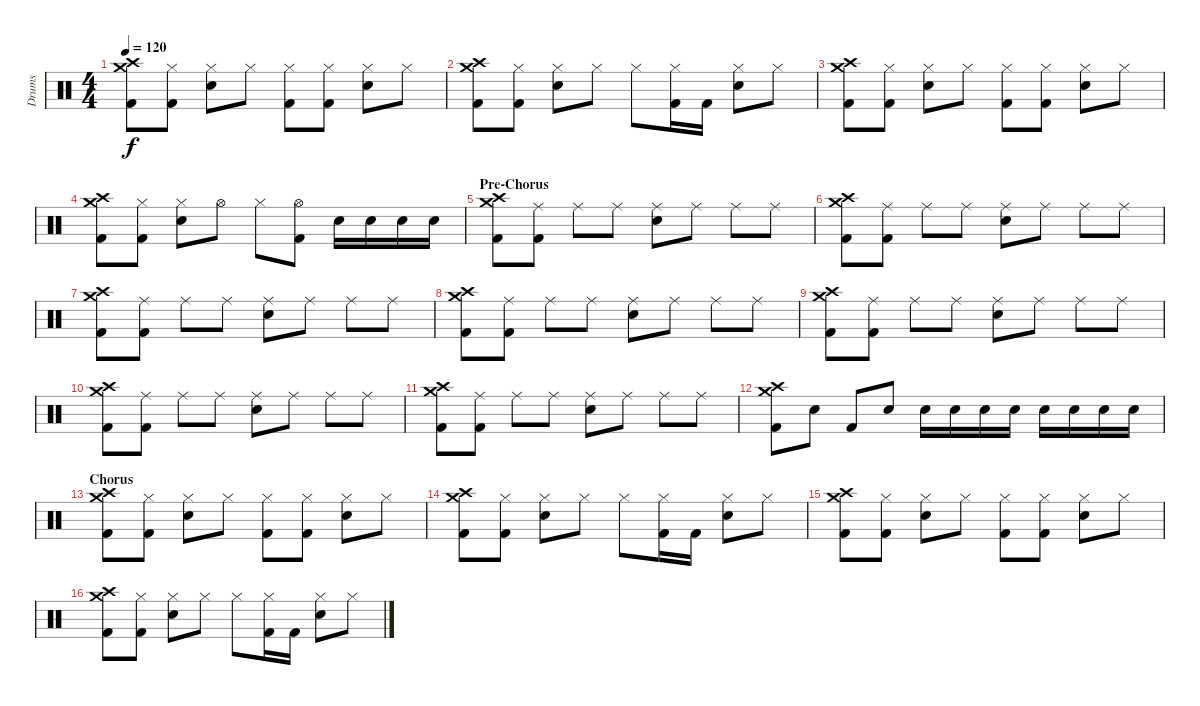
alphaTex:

\track ("Drums" "Drums") {instrument percussion}
\staff {score}
\articulation defaults
\ts (4 4)
\tempo 120
\clef neutral
\ks c
("Crash high (hit)" "Crash medium (hit)" "Kick (hit) 2").8{dy f} ("Hi-Hat (closed)" "Kick (hit) 2").8 ("Hi-Hat (closed)" "Snare (hit) 2").8 "Hi-Hat (closed)".8 ("Hi-Hat (closed)" "Kick (hit) 2").8 ("Hi-Hat (closed)" "Kick (hit) 2").8 ("Hi-Hat (closed)" "Snare (hit) 2").8 "Hi-Hat (closed)".8 |
("Crash high (hit)" "Crash medium (hit)" "Kick (hit) 2").8 ("Hi-Hat (closed)" "Kick (hit) 2").8 ("Hi-Hat (closed)" "Snare (hit) 2").8 "Hi-Hat (closed)".8 "Hi-Hat (closed)".8 ("Hi-Hat (closed)" "Kick (hit) 2").16 "Kick (hit) 2".16 ("Hi-Hat (closed)" "Snare (hit) 2").8 "Hi-Hat (closed)".8 |
("Crash high (hit)" "Crash medium (hit)" "Kick (hit) 2").8 ("Hi-Hat (closed)" "Kick (hit) 2").8 ("Hi-Hat (closed)" "Snare (hit) 2").8 "Hi-Hat (closed)".8 ("Hi-Hat (closed)" "Kick (hit) 2").8 ("Hi-Hat (closed)" "Kick (hit) 2").8 ("Hi-Hat (closed)" "Snare (hit) 2").8 "Hi-Hat (closed)".8 |
("Crash high (hit)" "Crash medium (hit)" "Kick (hit) 2").8 ("Hi-Hat (closed)" "Kick (hit) 2").8 ("Hi-Hat (closed)" "Snare (hit) 2").8 "Hi-Hat (open)".8 "Hi-Hat (closed)".8 ("Hi-Hat (open)" "Kick (hit) 2").8 "Snare (hit) 2".16 "Snare (hit) 2".16 "Snare (hit) 2".16 "Snare (hit) 2".16 |
\section ("" "Pre-Chorus")
("Crash high (hit)" "Crash medium (hit)" "Kick (hit) 2").8 ("Ride (middle)" "Kick (hit) 2").8 "Ride (middle)".8 "Ride (middle)".8 ("Ride (middle)" "Snare (hit) 2").8 "Ride (middle)".8 "Ride (middle)".8 "Ride (middle)".8 |
("Crash high (hit)" "Crash medium (hit)" "Kick (hit) 2").8 ("Ride (middle)" "Kick (hit) 2").8 "Ride (middle)".8 "Ride (middle)".8 ("Ride (middle)" "Snare (hit) 2").8 "Ride (middle)".8 "Ride (middle)".8 "Ride (middle)".8 |
("Crash high (hit)" "Crash medium (hit)" "Kick (hit) 2").8 ("Ride (middle)" "Kick (hit) 2").8 "Ride (middle)".8 "Ride (middle)".8 ("Ride (middle)" "Snare (hit) 2").8 "Ride (middle)".8 "Ride (middle)".8 "Ride (middle)".8 |
("Crash high (hit)" "Crash medium (hit)" "Kick (hit) 2").8 ("Ride (middle)" "Kick (hit) 2").8 "Ride (middle)".8 "Ride (middle)".8 ("Ride (middle)" "Snare (hit) 2").8 "Ride (middle)".8 "Ride (middle)".8 "Ride (middle)".8 |
("Crash high (hit)" "Crash medium (hit)" "Kick (hit) 2").8 ("Ride (middle)" "Kick (hit) 2").8 "Ride (middle)".8 "Ride (middle)".8 ("Ride (middle)" "Snare (hit) 2").8 "Ride (middle)".8 "Ride (middle)".8 "Ride (middle)".8 |
("Crash high (hit)" "Crash medium (hit)" "Kick (hit) 2").8 ("Ride (middle)" "Kick (hit) 2").8 "Ride (middle)".8 "Ride (middle)".8 ("Ride (middle)" "Snare (hit) 2").8 "Ride (middle)".8 "Ride (middle)".8 "Ride (middle)".8 |
("Crash high (hit)" "Crash medium (hit)" "Kick (hit) 2").8 ("Ride (middle)" "Kick (hit) 2").8 "Ride (middle)".8 "Ride (middle)".8 ("Ride (middle)" "Snare (hit) 2").8 "Ride (middle)".8 "Ride (middle)".8 "Ride (middle)".8 |
("Crash high (hit)" "Crash medium (hit)" "Kick (hit) 2").8 "Snare (hit) 2".8 "Kick (hit) 2".8 "Snare (hit) 2".8 "Snare (hit) 2".16 "Snare (hit) 2".16 "Snare (hit) 2".16 "Snare (hit) 2".16 "Snare (hit) 2".16 "Snare (hit) 2".16 "Snare (hit) 2".16 "Snare (hit) 2".16 |
\section ("" "Chorus")
("Crash high (hit)" "Crash medium (hit)" "Kick (hit) 2").8 ("Hi-Hat (closed)" "Kick (hit) 2").8 ("Hi-Hat (closed)" "Snare (hit) 2").8 "Hi-Hat (closed)".8 ("Hi-Hat (closed)" "Kick (hit) 2").8 ("Hi-Hat (closed)" "Kick (hit) 2").8 ("Hi-Hat (closed)" "Snare (hit) 2").8 "Hi-Hat (closed)".8 |
("Crash high (hit)" "Crash medium (hit)" "Kick (hit) 2").8 ("Hi-Hat (closed)" "Kick (hit) 2").8 ("Hi-Hat (closed)" "Snare (hit) 2").8 "Hi-Hat (closed)".8 "Hi-Hat (closed)".8 ("Hi-Hat (closed)" "Kick (hit) 2").16 "Kick (hit) 2".16 ("Hi-Hat (closed)" "Snare (hit) 2").8 "Hi-Hat (closed)".8 |
("Crash high (hit)" "Crash medium (hit)" "Kick (hit) 2").8 ("Hi-Hat (closed)" "Kick (hit) 2").8 ("Hi-Hat (closed)" "Snare (hit) 2").8 "Hi-Hat (closed)".8 ("Hi-Hat (closed)" "Kick (hit) 2").8 ("Hi-Hat (closed)" "Kick (hit) 2").8 ("Hi-Hat (closed)" "Snare (hit) 2").8 "Hi-Hat (closed)".8 |
("Crash high (hit)" "Crash medium (hit)" "Kick (hit) 2").8 ("Hi-Hat (closed)" "Kick (hit) 2").8 ("Hi-Hat (closed)" "Snare (hit) 2").8 "Hi-Hat (closed)".8 "Hi-Hat (closed)".8 ("Hi-Hat (closed)" "Kick (hit) 2").16 "Kick (hit) 2".16 ("Hi-Hat (closed)" "Snare (hit) 2").8 "Hi-Hat (closed)".8
